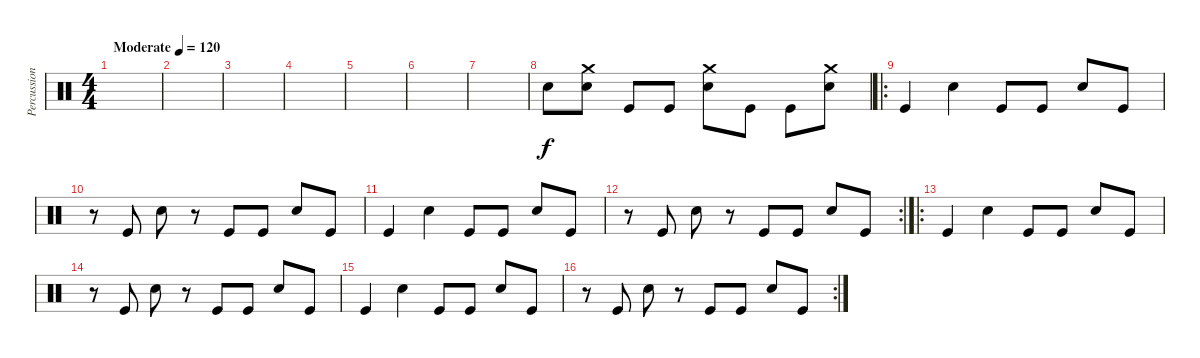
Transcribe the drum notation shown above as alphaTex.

\track ("Percussions" "Percussion") {instrument percussion}
\staff {score}
\articulation defaults
\ts (4 4)
\tempo (120 "Moderate")
\clef neutral
\ks c
|
|
|
|
|
|
|
"Snare (hit)".8 ("Crash medium (hit)" "Electric Snare (hit)").8 "Kick (hit)".8 "Kick (hit)".8 ("Crash medium (hit)" "Electric Snare (hit)").8 "Kick (hit)".8 "Kick (hit)".8 ("Crash medium (hit)" "Electric Snare (hit)").8 |
\ro "Kick (hit)".4 "Electric Snare (hit)".4 "Kick (hit)".8 "Kick (hit)".8 "Electric Snare (hit)".8 "Kick (hit)".8
|
r.8 "Kick (hit)".8 "Electric Snare (hit)".8 r.8 "Kick (hit)".8 "Kick (hit)".8 "Electric Snare (hit)".8 "Kick (hit)".8 |
"Kick (hit)".4 "Electric Snare (hit)".4 "Kick (hit)".8 "Kick (hit)".8 "Electric Snare (hit)".8 "Kick (hit)".8 |
\rc 2
r.8 "Kick (hit)".8 "Electric Snare (hit)".8 r.8 "Kick (hit)".8 "Kick (hit)".8 "Electric Snare (hit)".8 "Kick (hit)".8 |
\ro "Kick (hit)".4 "Electric Snare (hit)".4 "Kick (hit)".8 "Kick (hit)".8 "Electric Snare (hit)".8 "Kick (hit)".8
|
r.8 "Kick (hit)".8 "Electric Snare (hit)".8 r.8 "Kick (hit)".8 "Kick (hit)".8 "Electric Snare (hit)".8 "Kick (hit)".8 |
"Kick (hit)".4 "Electric Snare (hit)".4 "Kick (hit)".8 "Kick (hit)".8 "Electric Snare (hit)".8 "Kick (hit)".8 |
\rc 2
r.8 "Kick (hit)".8 "Electric Snare (hit)".8 r.8 "Kick (hit)".8 "Kick (hit)".8 "Electric Snare (hit)".8 "Kick (hit)".8
